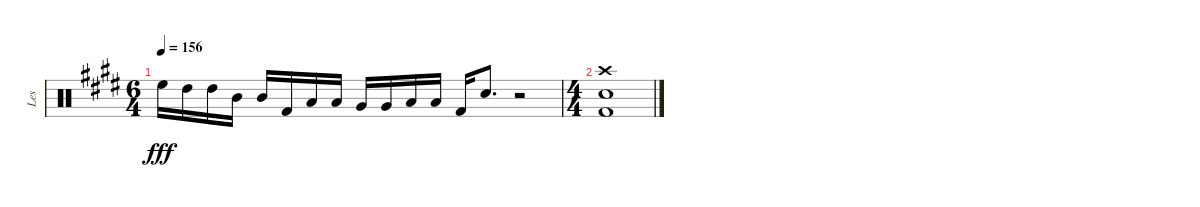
\track ("Les" "Les") {instrument percussion}
\staff {score}
\articulation defaults
\ts (6 4)
\tempo 156
\clef neutral
\ks e "High Floor Tom (hit)".16{dy fff} "High Tom (hit)".16 "High Tom (hit)".16 "Mid Tom (hit)".16 "Mid Tom (hit)".16 "Kick (hit) 2".16 "Low Tom (hit)".16 "Low Tom (hit)".16 "Very Low Tom (hit)".16 "Very Low Tom (hit)".16 "Low Floor Tom (hit)".16 "Low Floor Tom (hit)".16 "Kick (hit) 2".16 "Electric Snare (hit)".8{d}
r.2 |
\ts (4 4)
("Crash high (hit)" "Electric Snare (hit)" "Kick (hit) 2").1
